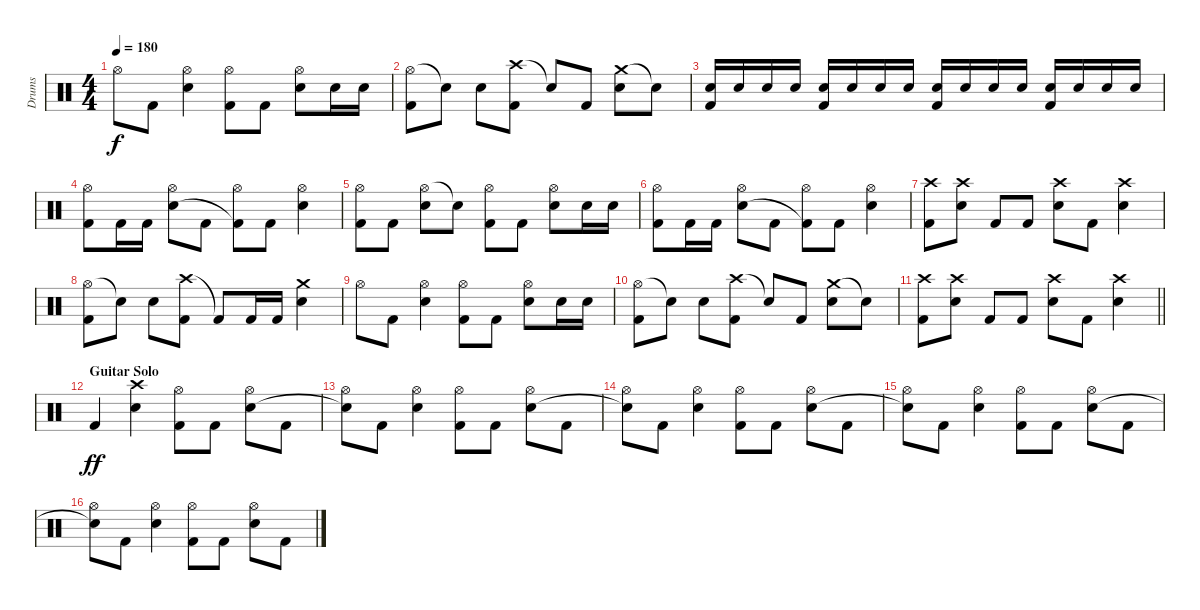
\track ("Drums" "Drums") {instrument percussion}
\staff {score}
\articulation defaults
\ts (4 4)
\tempo 180
\clef neutral
\ks c "Hi-Hat (open)".8{dy f} "Kick (hit) 2".8
("Hi-Hat (open)" "Electric Snare (hit)").4 ("Hi-Hat (open)" "Kick (hit) 2").8 "Kick (hit) 2".8 ("Hi-Hat (open)" "Electric Snare (hit)").8 "Electric Snare (hit)".16 "Electric Snare (hit)".16 |
("Hi-Hat (open)" "Kick (hit) 2").8 "Snare (hit)"{t}.8 "Electric Snare (hit)".8 ("Crash high (hit)" "Kick (hit) 2").8 "Snare (hit)"{t}.8 "Kick (hit) 2".8 ("Crash medium (hit)" "Electric Snare (hit)").8 "Snare (hit)"{t}.8 |
("Electric Snare (hit)" "Kick (hit) 2").16 "Electric Snare (hit)".16 "Electric Snare (hit)".16 "Electric Snare (hit)".16 ("Electric Snare (hit)" "Kick (hit) 2").16 "Electric Snare (hit)".16 "Electric Snare (hit)".16 "Electric Snare (hit)".16 ("Electric Snare (hit)" "Kick (hit) 2").16 "Electric Snare (hit)".16 "Electric Snare (hit)".16 "Electric Snare (hit)".16 ("Electric Snare (hit)" "Kick (hit) 2").16 "Electric Snare (hit)".16 "Electric Snare (hit)".16 "Electric Snare (hit)".16 |
("Hi-Hat (open)" "Kick (hit) 2").8 "Kick (hit) 2".16 "Kick (hit) 2".16 ("Hi-Hat (open)" "Electric Snare (hit)").8 "Kick (hit) 2".8 ("Hi-Hat (open)" "Kick (hit) 2"{t}).8 "Kick (hit) 2".8 ("Hi-Hat (open)" "Electric Snare (hit)").4 |
("Hi-Hat (open)" "Kick (hit) 2").8 "Kick (hit) 2".8 ("Hi-Hat (open)" "Electric Snare (hit)").8 "Snare (hit)"{t}.8 ("Hi-Hat (open)" "Kick (hit) 2").8 "Kick (hit) 2".8 ("Hi-Hat (open)" "Electric Snare (hit)").8 "Electric Snare (hit)".16 "Electric Snare (hit)".16 |
("Hi-Hat (open)" "Kick (hit) 2").8 "Kick (hit) 2".16 "Kick (hit) 2".16 ("Hi-Hat (open)" "Electric Snare (hit)").8 "Kick (hit) 2".8 ("Hi-Hat (open)" "Kick (hit) 2"{t}).8 "Kick (hit) 2".8 ("Hi-Hat (open)" "Electric Snare (hit)").4 |
("Crash high (hit)" "Kick (hit) 2").8 ("Crash high (hit)" "Electric Snare (hit)").8 "Kick (hit) 2".8 "Kick (hit) 2".8 ("Crash high (hit)" "Electric Snare (hit)").8 "Kick (hit) 2".8 ("Crash high (hit)" "Electric Snare (hit)").4 |
("Hi-Hat (open)" "Kick (hit) 2").8 "Snare (hit)"{t}.8 "Electric Snare (hit)".8 ("Crash high (hit)" "Kick (hit) 2").8 "Kick (hit) 2"{t}.8 "Kick (hit) 2".16 "Kick (hit) 2".16 ("Crash medium (hit)" "Electric Snare (hit)").4 |
"Hi-Hat (open)".8 "Kick (hit) 2".8 ("Hi-Hat (open)" "Electric Snare (hit)").4 ("Hi-Hat (open)" "Kick (hit) 2").8 "Kick (hit) 2".8 ("Hi-Hat (open)" "Electric Snare (hit)").8 "Electric Snare (hit)".16 "Electric Snare (hit)".16 |
("Hi-Hat (open)" "Kick (hit) 2").8 "Snare (hit)"{t}.8 "Electric Snare (hit)".8 ("Crash high (hit)" "Kick (hit) 2").8 "Snare (hit)"{t}.8 "Kick (hit) 2".8 ("Crash medium (hit)" "Electric Snare (hit)").8 "Snare (hit)"{t}.8 |
\barLineRight lightlight
("Crash high (hit)" "Kick (hit) 2").8 ("Crash high (hit)" "Electric Snare (hit)").8 "Kick (hit) 2".8 "Kick (hit) 2".8 ("Crash high (hit)" "Electric Snare (hit)").8 "Kick (hit) 2".8 ("Crash high (hit)" "Electric Snare (hit)").4 |
\section ("" "Guitar Solo")
"Kick (hit) 2".4{dy ff} ("Crash high (hit)" "Electric Snare (hit)").4 ("Hi-Hat (open)" "Kick (hit) 2").8 "Kick (hit) 2".8 ("Hi-Hat (open)" "Electric Snare (hit)").8 "Kick (hit) 2".8 |
("Hi-Hat (open)" "Snare (hit)"{t}).8 "Kick (hit) 2".8 ("Hi-Hat (open)" "Electric Snare (hit)").4 ("Hi-Hat (open)" "Kick (hit) 2").8 "Kick (hit) 2".8 ("Hi-Hat (open)" "Electric Snare (hit)").8 "Kick (hit) 2".8 |
("Hi-Hat (open)" "Snare (hit)"{t}).8 "Kick (hit) 2".8 ("Hi-Hat (open)" "Electric Snare (hit)").4 ("Hi-Hat (open)" "Kick (hit) 2").8 "Kick (hit) 2".8 ("Hi-Hat (open)" "Electric Snare (hit)").8 "Kick (hit) 2".8 |
("Hi-Hat (open)" "Snare (hit)"{t}).8 "Kick (hit) 2".8 ("Hi-Hat (open)" "Electric Snare (hit)").4 ("Hi-Hat (open)" "Kick (hit) 2").8 "Kick (hit) 2".8 ("Hi-Hat (open)" "Electric Snare (hit)").8 "Kick (hit) 2".8 |
("Hi-Hat (open)" "Snare (hit)"{t}).8 "Kick (hit) 2".8 ("Hi-Hat (open)" "Electric Snare (hit)").4 ("Hi-Hat (open)" "Kick (hit) 2").8 "Kick (hit) 2".8 ("Hi-Hat (open)" "Electric Snare (hit)").8 "Kick (hit) 2".8
